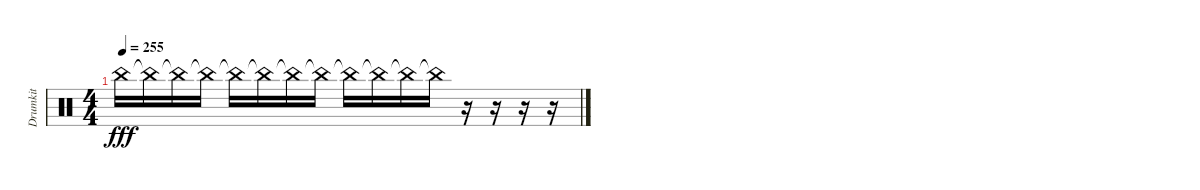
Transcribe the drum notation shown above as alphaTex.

\track ("Drumkit" "Drumkit") {instrument percussion}
\staff {score}
\articulation defaults
\ts (4 4)
\tempo 255
\clef neutral
\ks c "China (hit)"{t}.16{dy fff} "China (hit)"{t}.16 "China (hit)"{t}.16 "China (hit)"{t}.16 "China (hit)"{t}.16 "China (hit)"{t}.16 "China (hit)"{t}.16 "China (hit)"{t}.16 "China (hit)"{t}.16 "China (hit)"{t}.16 "China (hit)"{t}.16 "China (hit)"{t}.16
r.16 r.16 r.16 r.16
